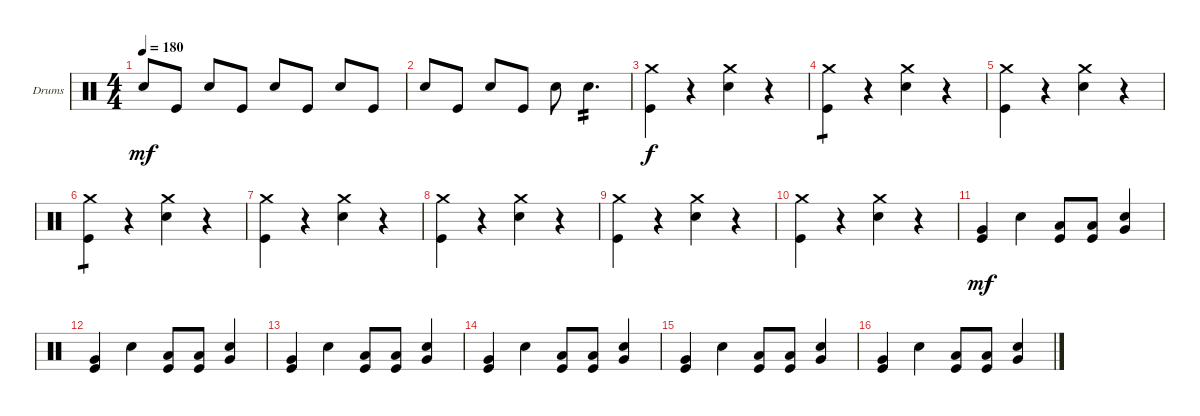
\bracketExtendMode groupsimilarinstruments
\firstSystemTrackNameOrientation horizontal
\otherSystemsTrackNameOrientation horizontal
\track ("Drumkit" "Drums") {instrument percussion}
\staff {score}
\articulation defaults
\ts (4 4)
\tempo 180
\clef neutral
\scale
0.333333
\ks c "Snare (hit) 2".8{dy mf} "Kick (hit)".8 "Snare (hit) 2".8 "Kick (hit)".8 "Snare (hit) 2".8 "Kick (hit)".8 "Snare (hit) 2".8 "Kick (hit)".8
|
\scale
0.333333 "Snare (hit) 2".8 "Kick (hit)".8 "Snare (hit) 2".8 "Kick (hit)".8 "Snare (hit) 2".8 "Snare (hit) 2".4{d tp 2} |
\scale
0.333333 ("Crash medium (hit)" "Kick (hit)").4{dy f} r.4 ("Crash medium (hit)" "Snare (hit) 2").4 r.4 |
\scale
0.333333 ("Crash medium (hit)" "Kick (hit)").4{tp 1} r.4 ("Crash medium (hit)" "Snare (hit) 2").4 r.4 |
\scale
0.333333 ("Crash medium (hit)" "Kick (hit)").4 r.4 ("Crash medium (hit)" "Snare (hit) 2").4 r.4 |
\scale
0.333333 ("Crash medium (hit)" "Kick (hit)").4{tp 1} r.4 ("Crash medium (hit)" "Snare (hit) 2").4 r.4 |
\scale
0.333333 ("Crash medium (hit)" "Kick (hit)").4 r.4 ("Crash medium (hit)" "Snare (hit) 2").4 r.4 |
\scale
0.333333 ("Crash medium (hit)" "Kick (hit)").4 r.4 ("Crash medium (hit)" "Snare (hit) 2").4 r.4 |
\scale
0.333333 ("Crash medium (hit)" "Kick (hit)").4 r.4 ("Crash medium (hit)" "Snare (hit) 2").4 r.4 |
\scale
0.333333 ("Crash medium (hit)" "Kick (hit)").4 r.4 ("Crash medium (hit)" "Snare (hit) 2").4 r.4 |
\scale
0.333333 ("Kick (hit)" "Very Low Tom (hit)").4{dy mf} "Snare (hit) 2".4 ("Kick (hit)" "Low Tom (hit)").8 ("Kick (hit)" "Low Tom (hit)").8 ("Snare (hit) 2" "Very Low Tom (hit)").4 |
\scale
0.333333 ("Kick (hit)" "Very Low Tom (hit)").4 "Snare (hit) 2".4 ("Kick (hit)" "Low Tom (hit)").8 ("Kick (hit)" "Low Tom (hit)").8 ("Snare (hit) 2" "Very Low Tom (hit)").4 |
\scale
0.333333 ("Kick (hit)" "Very Low Tom (hit)").4 "Snare (hit) 2".4 ("Kick (hit)" "Low Tom (hit)").8 ("Kick (hit)" "Low Tom (hit)").8 ("Snare (hit) 2" "Very Low Tom (hit)").4 |
\scale
0.333333 ("Kick (hit)" "Very Low Tom (hit)").4 "Snare (hit) 2".4 ("Kick (hit)" "Low Tom (hit)").8 ("Kick (hit)" "Low Tom (hit)").8 ("Snare (hit) 2" "Very Low Tom (hit)").4 |
\scale
0.333333 ("Kick (hit)" "Very Low Tom (hit)").4 "Snare (hit) 2".4 ("Kick (hit)" "Low Tom (hit)").8 ("Kick (hit)" "Low Tom (hit)").8 ("Snare (hit) 2" "Very Low Tom (hit)").4 |
\scale
0.333333 ("Kick (hit)" "Very Low Tom (hit)").4 "Snare (hit) 2".4 ("Kick (hit)" "Low Tom (hit)").8 ("Kick (hit)" "Low Tom (hit)").8 ("Snare (hit) 2" "Very Low Tom (hit)").4
